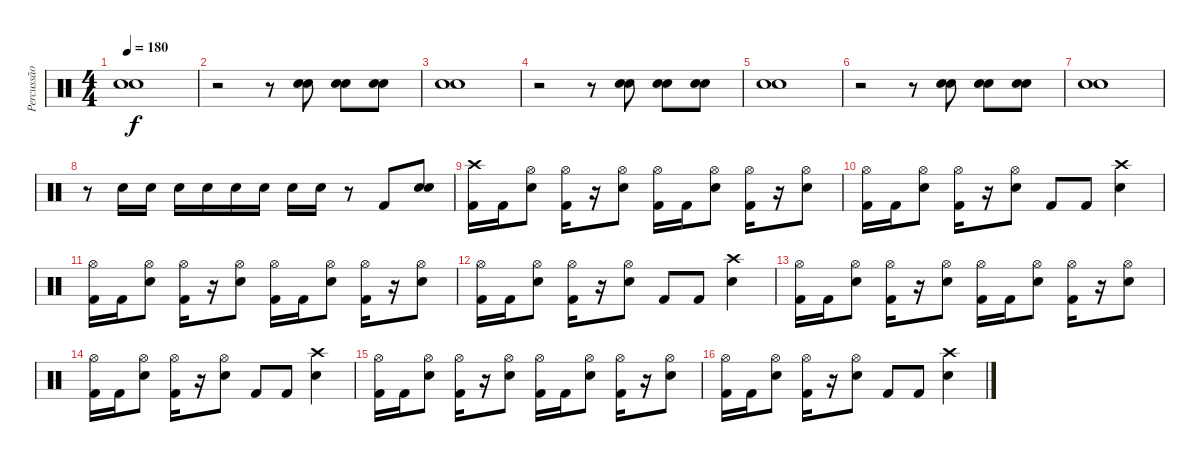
\track ("Percussão" "Percussão") {instrument percussion}
\staff {score}
\articulation defaults
\ts (4 4)
\tempo 180
\clef neutral
\ks c
("Electric Snare (hit)" "Electric Snare (hit)").1{dy f} |
r.2 r.8 ("Electric Snare (hit)" "Electric Snare (hit)").8 ("Electric Snare (hit)" "Electric Snare (hit)").8 ("Electric Snare (hit)" "Electric Snare (hit)").8 |
("Electric Snare (hit)" "Electric Snare (hit)").1 |
r.2 r.8 ("Electric Snare (hit)" "Electric Snare (hit)").8 ("Electric Snare (hit)" "Electric Snare (hit)").8 ("Electric Snare (hit)" "Electric Snare (hit)").8 |
("Electric Snare (hit)" "Electric Snare (hit)").1 |
r.2 r.8 ("Electric Snare (hit)" "Electric Snare (hit)").8 ("Electric Snare (hit)" "Electric Snare (hit)").8 ("Electric Snare (hit)" "Electric Snare (hit)").8 |
("Electric Snare (hit)" "Electric Snare (hit)").1 |
r.8 "Electric Snare (hit)".16 "Electric Snare (hit)".16 "Electric Snare (hit)".16 "Electric Snare (hit)".16 "Electric Snare (hit)".16 "Electric Snare (hit)".16 "Electric Snare (hit)".16 "Electric Snare (hit)".16 r.8 "Kick (hit) 2".8 ("Electric Snare (hit)" "Electric Snare (hit)").8{bd 240} |
("Crash high (hit)" "Kick (hit) 2").16 "Kick (hit) 2".16 ("Hi-Hat (open)" "Electric Snare (hit)").8 ("Hi-Hat (open)" "Kick (hit) 2").16 r.16 ("Hi-Hat (open)" "Electric Snare (hit)").8 ("Hi-Hat (open)" "Kick (hit) 2").16 "Kick (hit) 2".16 ("Hi-Hat (open)" "Electric Snare (hit)").8 ("Hi-Hat (open)" "Kick (hit) 2").16 r.16 ("Hi-Hat (open)" "Electric Snare (hit)").8 |
("Hi-Hat (open)" "Kick (hit) 2").16 "Kick (hit) 2".16 ("Hi-Hat (open)" "Electric Snare (hit)").8 ("Hi-Hat (open)" "Kick (hit) 2").16 r.16 ("Hi-Hat (open)" "Electric Snare (hit)").8 "Kick (hit) 2".8 "Kick (hit) 2".8 ("Crash high (hit)" "Electric Snare (hit)").4 |
("Hi-Hat (open)" "Kick (hit) 2").16 "Kick (hit) 2".16 ("Hi-Hat (open)" "Electric Snare (hit)").8 ("Hi-Hat (open)" "Kick (hit) 2").16 r.16 ("Hi-Hat (open)" "Electric Snare (hit)").8 ("Hi-Hat (open)" "Kick (hit) 2").16 "Kick (hit) 2".16 ("Hi-Hat (open)" "Electric Snare (hit)").8 ("Hi-Hat (open)" "Kick (hit) 2").16 r.16 ("Hi-Hat (open)" "Electric Snare (hit)").8 |
("Hi-Hat (open)" "Kick (hit) 2").16 "Kick (hit) 2".16 ("Hi-Hat (open)" "Electric Snare (hit)").8 ("Hi-Hat (open)" "Kick (hit) 2").16 r.16 ("Hi-Hat (open)" "Electric Snare (hit)").8 "Kick (hit) 2".8 "Kick (hit) 2".8 ("Crash high (hit)" "Electric Snare (hit)").4 |
("Hi-Hat (open)" "Kick (hit) 2").16 "Kick (hit) 2".16 ("Hi-Hat (open)" "Electric Snare (hit)").8 ("Hi-Hat (open)" "Kick (hit) 2").16 r.16 ("Hi-Hat (open)" "Electric Snare (hit)").8 ("Hi-Hat (open)" "Kick (hit) 2").16 "Kick (hit) 2".16 ("Hi-Hat (open)" "Electric Snare (hit)").8 ("Hi-Hat (open)" "Kick (hit) 2").16 r.16 ("Hi-Hat (open)" "Electric Snare (hit)").8 |
("Hi-Hat (open)" "Kick (hit) 2").16 "Kick (hit) 2".16 ("Hi-Hat (open)" "Electric Snare (hit)").8 ("Hi-Hat (open)" "Kick (hit) 2").16 r.16 ("Hi-Hat (open)" "Electric Snare (hit)").8 "Kick (hit) 2".8 "Kick (hit) 2".8 ("Crash high (hit)" "Electric Snare (hit)").4 |
("Hi-Hat (open)" "Kick (hit) 2").16 "Kick (hit) 2".16 ("Hi-Hat (open)" "Electric Snare (hit)").8 ("Hi-Hat (open)" "Kick (hit) 2").16 r.16 ("Hi-Hat (open)" "Electric Snare (hit)").8 ("Hi-Hat (open)" "Kick (hit) 2").16 "Kick (hit) 2".16 ("Hi-Hat (open)" "Electric Snare (hit)").8 ("Hi-Hat (open)" "Kick (hit) 2").16 r.16 ("Hi-Hat (open)" "Electric Snare (hit)").8 |
("Hi-Hat (open)" "Kick (hit) 2").16 "Kick (hit) 2".16 ("Hi-Hat (open)" "Electric Snare (hit)").8 ("Hi-Hat (open)" "Kick (hit) 2").16 r.16 ("Hi-Hat (open)" "Electric Snare (hit)").8 "Kick (hit) 2".8 "Kick (hit) 2".8 ("Crash high (hit)" "Electric Snare (hit)").4
